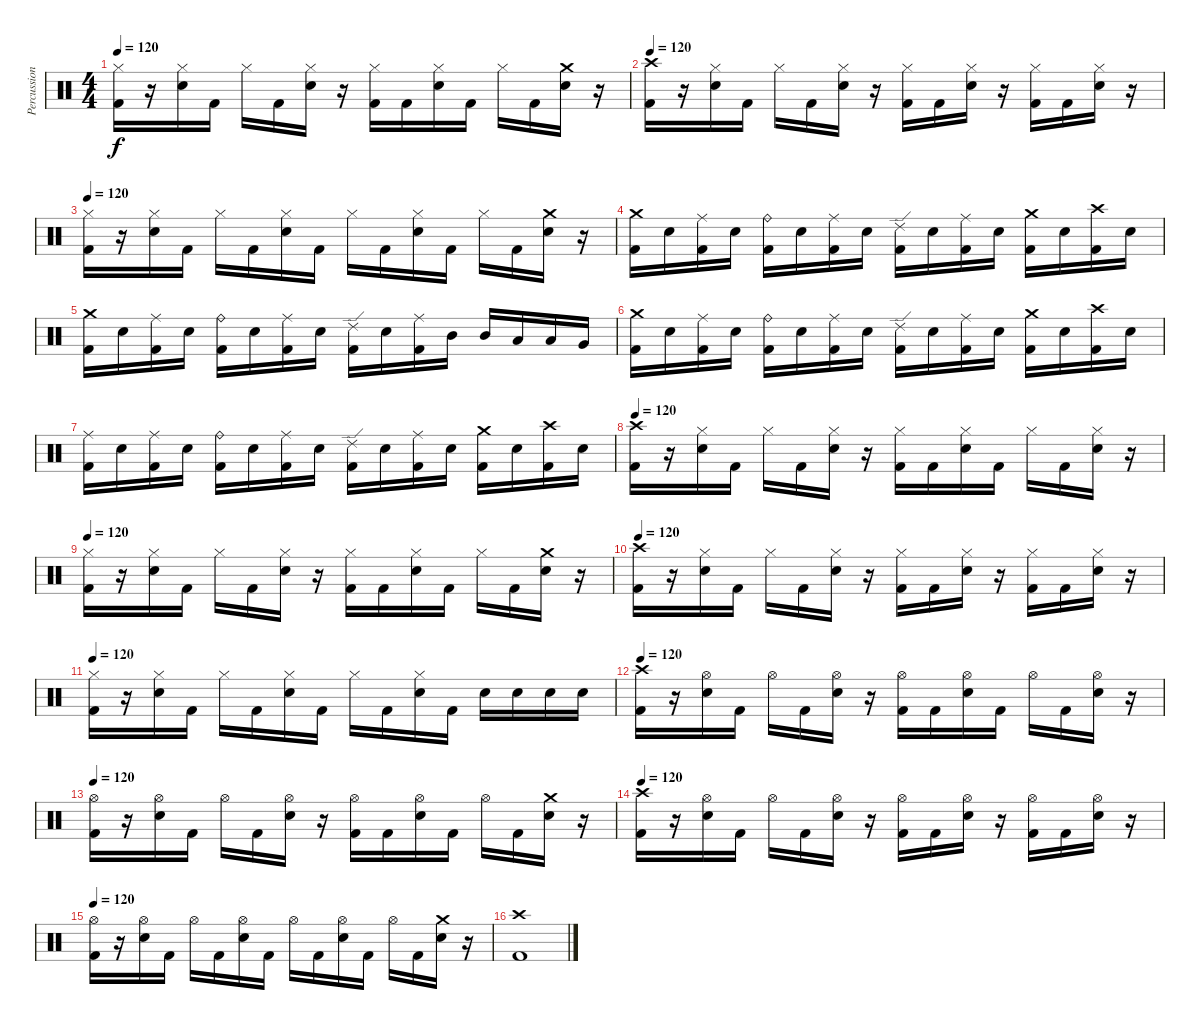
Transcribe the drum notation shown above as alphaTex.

\track ("Percussion" "Percussion") {instrument percussion}
\staff {score}
\articulation defaults
\ts (4 4)
\tempo 120
\clef neutral
\ks c
("Hi-Hat (closed)" "Kick (hit) 2").16{dy f} r.16 ("Hi-Hat (closed)" "Snare (hit) 2").16 "Kick (hit) 2".16 "Hi-Hat (closed)".16 "Kick (hit) 2".16 ("Hi-Hat (closed)" "Snare (hit) 2").16 r.16 ("Hi-Hat (closed)" "Kick (hit) 2").16 "Kick (hit) 2".16 ("Hi-Hat (closed)" "Snare (hit) 2").16 "Kick (hit) 2".16 "Hi-Hat (closed)".16 "Kick (hit) 2".16 ("Crash medium (hit)" "Snare (hit) 2").16 r.16 |
\tempo 120
("Crash high (hit)" "Kick (hit) 2").16 r.16 ("Hi-Hat (closed)" "Snare (hit) 2").16 "Kick (hit) 2".16 "Hi-Hat (closed)".16 "Kick (hit) 2".16 ("Hi-Hat (closed)" "Snare (hit) 2").16 r.16 ("Hi-Hat (closed)" "Kick (hit) 2").16 "Kick (hit) 2".16 ("Hi-Hat (closed)" "Snare (hit) 2").16 r.16 ("Hi-Hat (closed)" "Kick (hit) 2").16 "Kick (hit) 2".16 ("Hi-Hat (closed)" "Snare (hit) 2").16 r.16 |
\tempo 120
("Hi-Hat (closed)" "Kick (hit) 2").16 r.16 ("Hi-Hat (closed)" "Snare (hit) 2").16 "Kick (hit) 2".16 "Hi-Hat (closed)".16 "Kick (hit) 2".16 ("Hi-Hat (closed)" "Snare (hit) 2").16 "Kick (hit) 2".16 "Hi-Hat (closed)".16 "Kick (hit) 2".16 ("Hi-Hat (closed)" "Snare (hit) 2").16 "Kick (hit) 2".16 "Hi-Hat (closed)".16 "Kick (hit) 2".16 ("Crash medium (hit)" "Snare (hit) 2").16 r.16 |
("Crash medium (hit)" "Kick (hit) 2").16 "Snare (hit) 2".16 ("Ride (middle)" "Kick (hit) 2").16 "Snare (hit) 2".16 ("Ride (bell)" "Kick (hit) 2").16 "Snare (hit) 2".16 ("Ride (middle)" "Kick (hit) 2").16 "Snare (hit) 2".16 ("Ride (edge) 2" "Kick (hit) 2").16 "Snare (hit) 2".16 ("Ride (middle)" "Kick (hit) 2").16 "Snare (hit) 2".16 ("Crash medium (hit)" "Kick (hit) 2").16 "Snare (hit) 2".16 ("Crash high (hit)" "Kick (hit) 2").16 "Snare (hit) 2".16 |
("Crash medium (hit)" "Kick (hit) 2").16 "Snare (hit) 2".16 ("Ride (middle)" "Kick (hit) 2").16 "Snare (hit) 2".16 ("Ride (bell)" "Kick (hit) 2").16 "Snare (hit) 2".16 ("Ride (middle)" "Kick (hit) 2").16 "Snare (hit) 2".16 ("Ride (edge) 2" "Kick (hit) 2").16 "Snare (hit) 2".16 ("Ride (middle)" "Kick (hit) 2").16 "Mid Tom (hit)".16 "Mid Tom (hit)".16 "Low Tom (hit)".16 "Low Tom (hit)".16 "Very Low Tom (hit)".16 |
("Crash medium (hit)" "Kick (hit) 2").16 "Snare (hit) 2".16 ("Ride (middle)" "Kick (hit) 2").16 "Snare (hit) 2".16 ("Ride (bell)" "Kick (hit) 2").16 "Snare (hit) 2".16 ("Ride (middle)" "Kick (hit) 2").16 "Snare (hit) 2".16 ("Ride (edge) 2" "Kick (hit) 2").16 "Snare (hit) 2".16 ("Ride (middle)" "Kick (hit) 2").16 "Snare (hit) 2".16 ("Crash medium (hit)" "Kick (hit) 2").16 "Snare (hit) 2".16 ("Crash high (hit)" "Kick (hit) 2").16 "Snare (hit) 2".16 |
("Ride (middle)" "Kick (hit) 2").16 "Snare (hit) 2".16 ("Ride (middle)" "Kick (hit) 2").16 "Snare (hit) 2".16 ("Ride (bell)" "Kick (hit) 2").16 "Snare (hit) 2".16 ("Ride (middle)" "Kick (hit) 2").16 "Snare (hit) 2".16 ("Ride (edge) 2" "Kick (hit) 2").16 "Snare (hit) 2".16 ("Ride (middle)" "Kick (hit) 2").16 "Snare (hit) 2".16 ("Crash medium (hit)" "Kick (hit) 2").16 "Snare (hit) 2".16 ("Crash high (hit)" "Kick (hit) 2").16 "Snare (hit) 2".16 |
\tempo 120
("Crash high (hit)" "Kick (hit) 2").16 r.16 ("Hi-Hat (closed)" "Snare (hit) 2").16 "Kick (hit) 2".16 "Hi-Hat (closed)".16 "Kick (hit) 2".16 ("Hi-Hat (closed)" "Snare (hit) 2").16 r.16 ("Hi-Hat (closed)" "Kick (hit) 2").16 "Kick (hit) 2".16 ("Hi-Hat (closed)" "Snare (hit) 2").16 "Kick (hit) 2".16 "Hi-Hat (closed)".16 "Kick (hit) 2".16 ("Hi-Hat (closed)" "Snare (hit) 2").16 r.16 |
\tempo 120
("Hi-Hat (closed)" "Kick (hit) 2").16 r.16 ("Hi-Hat (closed)" "Snare (hit) 2").16 "Kick (hit) 2".16 "Hi-Hat (closed)".16 "Kick (hit) 2".16 ("Hi-Hat (closed)" "Snare (hit) 2").16 r.16 ("Hi-Hat (closed)" "Kick (hit) 2").16 "Kick (hit) 2".16 ("Hi-Hat (closed)" "Snare (hit) 2").16 "Kick (hit) 2".16 "Hi-Hat (closed)".16 "Kick (hit) 2".16 ("Crash medium (hit)" "Snare (hit) 2").16 r.16 |
\tempo 120
("Crash high (hit)" "Kick (hit) 2").16 r.16 ("Hi-Hat (closed)" "Snare (hit) 2").16 "Kick (hit) 2".16 "Hi-Hat (closed)".16 "Kick (hit) 2".16 ("Hi-Hat (closed)" "Snare (hit) 2").16 r.16 ("Hi-Hat (closed)" "Kick (hit) 2").16 "Kick (hit) 2".16 ("Hi-Hat (closed)" "Snare (hit) 2").16 r.16 ("Hi-Hat (closed)" "Kick (hit) 2").16 "Kick (hit) 2".16 ("Hi-Hat (closed)" "Snare (hit) 2").16 r.16 |
\tempo 120
("Hi-Hat (closed)" "Kick (hit) 2").16 r.16 ("Hi-Hat (closed)" "Snare (hit) 2").16 "Kick (hit) 2".16 "Hi-Hat (closed)".16 "Kick (hit) 2".16 ("Hi-Hat (closed)" "Snare (hit) 2").16 "Kick (hit) 2".16 "Hi-Hat (closed)".16 "Kick (hit) 2".16 ("Hi-Hat (closed)" "Snare (hit) 2").16 "Kick (hit) 2".16 "Snare (hit) 2".16 "Snare (hit) 2".16 "Snare (hit) 2".16 "Snare (hit) 2".16 |
\tempo 120
("Crash high (hit)" "Kick (hit) 2").16 r.16 ("Hi-Hat (open)" "Snare (hit) 2").16 "Kick (hit) 2".16 "Hi-Hat (open)".16 "Kick (hit) 2".16 ("Hi-Hat (open)" "Snare (hit) 2").16 r.16 ("Hi-Hat (open)" "Kick (hit) 2").16 "Kick (hit) 2".16 ("Hi-Hat (open)" "Snare (hit) 2").16 "Kick (hit) 2".16 "Hi-Hat (open)".16 "Kick (hit) 2".16 ("Hi-Hat (open)" "Snare (hit) 2").16 r.16 |
\tempo 120
("Hi-Hat (open)" "Kick (hit) 2").16 r.16 ("Hi-Hat (open)" "Snare (hit) 2").16 "Kick (hit) 2".16 "Hi-Hat (open)".16 "Kick (hit) 2".16 ("Hi-Hat (open)" "Snare (hit) 2").16 r.16 ("Hi-Hat (open)" "Kick (hit) 2").16 "Kick (hit) 2".16 ("Hi-Hat (open)" "Snare (hit) 2").16 "Kick (hit) 2".16 "Hi-Hat (open)".16 "Kick (hit) 2".16 ("Crash medium (hit)" "Snare (hit) 2").16 r.16 |
\tempo 120
("Crash high (hit)" "Kick (hit) 2").16 r.16 ("Hi-Hat (open)" "Snare (hit) 2").16 "Kick (hit) 2".16 "Hi-Hat (open)".16 "Kick (hit) 2".16 ("Hi-Hat (open)" "Snare (hit) 2").16 r.16 ("Hi-Hat (open)" "Kick (hit) 2").16 "Kick (hit) 2".16 ("Hi-Hat (open)" "Snare (hit) 2").16 r.16 ("Hi-Hat (open)" "Kick (hit) 2").16 "Kick (hit) 2".16 ("Hi-Hat (open)" "Snare (hit) 2").16 r.16 |
\tempo 120
("Hi-Hat (open)" "Kick (hit) 2").16 r.16 ("Hi-Hat (open)" "Snare (hit) 2").16 "Kick (hit) 2".16 "Hi-Hat (open)".16 "Kick (hit) 2".16 ("Hi-Hat (open)" "Snare (hit) 2").16 "Kick (hit) 2".16 "Hi-Hat (open)".16 "Kick (hit) 2".16 ("Hi-Hat (open)" "Snare (hit) 2").16 "Kick (hit) 2".16 "Hi-Hat (open)".16 "Kick (hit) 2".16 ("Crash medium (hit)" "Snare (hit) 2").16 r.16 |
("Crash high (hit)" "Kick (hit) 2").1
